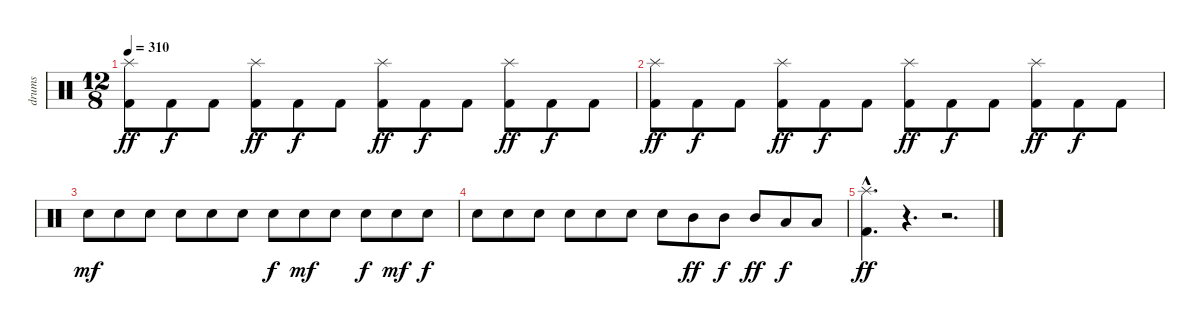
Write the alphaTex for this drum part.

\track ("drums" "drums") {instrument percussion}
\staff {score}
\articulation defaults
\ts (12 8)
\tempo 310
\clef neutral
\ks c
("Splash (hit)" "Kick (hit) 2").8{dy ff} "Kick (hit) 2".8{dy f} "Kick (hit) 2".8 ("Splash (hit)" "Kick (hit) 2").8{dy ff} "Kick (hit) 2".8{dy f} "Kick (hit) 2".8 ("Splash (hit)" "Kick (hit) 2").8{dy ff} "Kick (hit) 2".8{dy f} "Kick (hit) 2".8 ("Splash (hit)" "Kick (hit) 2").8{dy ff} "Kick (hit) 2".8{dy f} "Kick (hit) 2".8 |
("Splash (hit)" "Kick (hit) 2").8{dy ff} "Kick (hit) 2".8{dy f} "Kick (hit) 2".8 ("Splash (hit)" "Kick (hit) 2").8{dy ff} "Kick (hit) 2".8{dy f} "Kick (hit) 2".8 ("Splash (hit)" "Kick (hit) 2").8{dy ff} "Kick (hit) 2".8{dy f} "Kick (hit) 2".8 ("Splash (hit)" "Kick (hit) 2").8{dy ff} "Kick (hit) 2".8{dy f} "Kick (hit) 2".8 |
"Snare (hit) 2".8{dy mf} "Snare (hit) 2".8 "Snare (hit) 2".8 "Snare (hit) 2".8 "Snare (hit) 2".8 "Snare (hit) 2".8 "Snare (hit) 2".8{dy f} "Snare (hit) 2".8{dy mf} "Snare (hit) 2".8 "Snare (hit) 2".8{dy f} "Snare (hit) 2".8{dy mf} "Snare (hit) 2".8{dy f} |
"Snare (hit) 2".8 "Snare (hit) 2".8 "Snare (hit) 2".8 "Snare (hit) 2".8 "Snare (hit) 2".8 "Snare (hit) 2".8 "Snare (hit) 2".8 "Mid Tom (hit)".8{dy ff} "Mid Tom (hit)".8{dy f} "Mid Tom (hit)".8{dy ff} "Low Tom (hit)".8{dy f} "Low Tom (hit)".8 |
("Splash (hit)"{hac} "Kick (hit) 2"{hac}).4{d dy ff} r.4{d} r.2{d}
